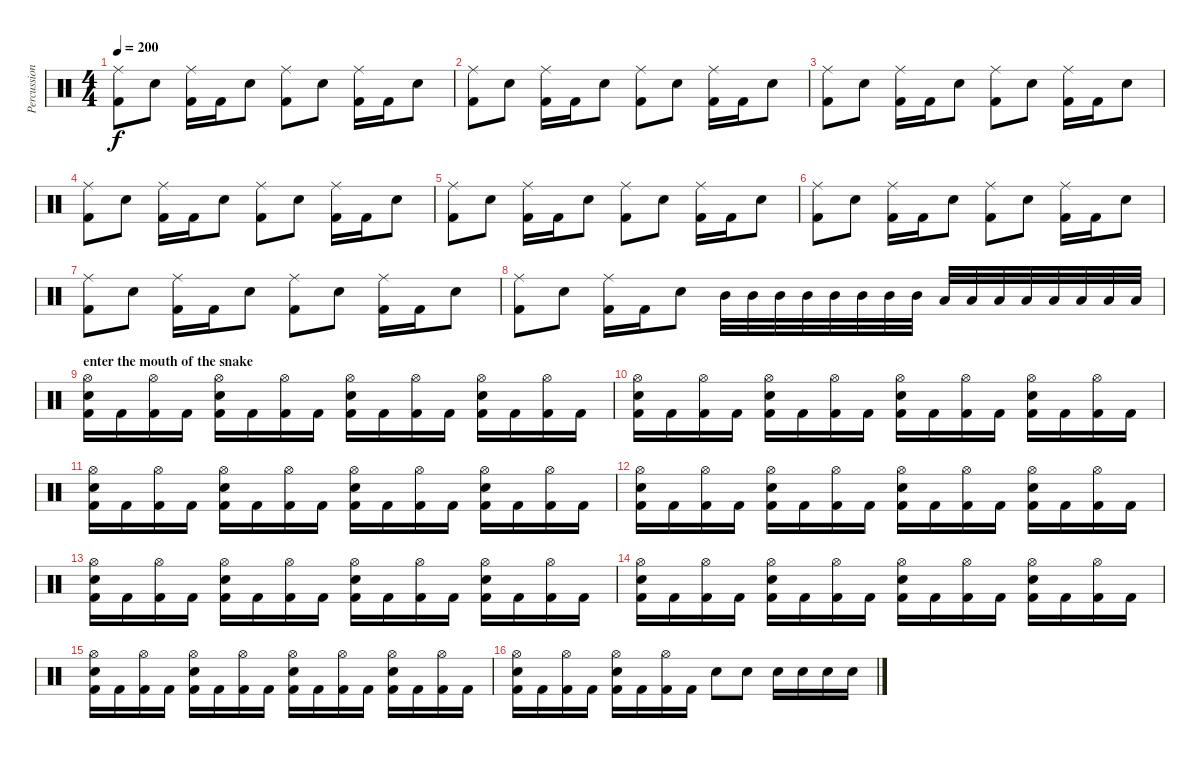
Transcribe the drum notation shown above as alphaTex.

\track ("Percussions" "Percussion") {instrument percussion}
\staff {score}
\articulation defaults
\ts (4 4)
\tempo 200
\clef neutral
\ks c
("Ride (middle)" "Kick (hit) 2").8{dy f} "Electric Snare (hit)".8 ("Ride (middle)" "Kick (hit) 2").16 "Kick (hit) 2".16 "Electric Snare (hit)".8 ("Ride (middle)" "Kick (hit) 2").8 "Electric Snare (hit)".8 ("Ride (middle)" "Kick (hit) 2").16 "Kick (hit) 2".16 "Electric Snare (hit)".8 |
("Ride (middle)" "Kick (hit) 2").8 "Electric Snare (hit)".8 ("Ride (middle)" "Kick (hit) 2").16 "Kick (hit) 2".16 "Electric Snare (hit)".8 ("Ride (middle)" "Kick (hit) 2").8 "Electric Snare (hit)".8 ("Ride (middle)" "Kick (hit) 2").16 "Kick (hit) 2".16 "Electric Snare (hit)".8 |
("Ride (middle)" "Kick (hit) 2").8 "Electric Snare (hit)".8 ("Ride (middle)" "Kick (hit) 2").16 "Kick (hit) 2".16 "Electric Snare (hit)".8 ("Ride (middle)" "Kick (hit) 2").8 "Electric Snare (hit)".8 ("Ride (middle)" "Kick (hit) 2").16 "Kick (hit) 2".16 "Electric Snare (hit)".8 |
("Ride (middle)" "Kick (hit) 2").8 "Electric Snare (hit)".8 ("Ride (middle)" "Kick (hit) 2").16 "Kick (hit) 2".16 "Electric Snare (hit)".8 ("Ride (middle)" "Kick (hit) 2").8 "Electric Snare (hit)".8 ("Ride (middle)" "Kick (hit) 2").16 "Kick (hit) 2".16 "Electric Snare (hit)".8 |
("Ride (middle)" "Kick (hit) 2").8 "Electric Snare (hit)".8 ("Ride (middle)" "Kick (hit) 2").16 "Kick (hit) 2".16 "Electric Snare (hit)".8 ("Ride (middle)" "Kick (hit) 2").8 "Electric Snare (hit)".8 ("Ride (middle)" "Kick (hit) 2").16 "Kick (hit) 2".16 "Electric Snare (hit)".8 |
("Ride (middle)" "Kick (hit) 2").8 "Electric Snare (hit)".8 ("Ride (middle)" "Kick (hit) 2").16 "Kick (hit) 2".16 "Electric Snare (hit)".8 ("Ride (middle)" "Kick (hit) 2").8 "Electric Snare (hit)".8 ("Ride (middle)" "Kick (hit) 2").16 "Kick (hit) 2".16 "Electric Snare (hit)".8 |
("Ride (middle)" "Kick (hit) 2").8 "Electric Snare (hit)".8 ("Ride (middle)" "Kick (hit) 2").16 "Kick (hit) 2".16 "Electric Snare (hit)".8 ("Ride (middle)" "Kick (hit) 2").8 "Electric Snare (hit)".8 ("Ride (middle)" "Kick (hit) 2").16 "Kick (hit) 2".16 "Electric Snare (hit)".8 |
("Ride (middle)" "Kick (hit) 2").8 "Electric Snare (hit)".8 ("Ride (middle)" "Kick (hit) 2").16 "Kick (hit) 2".16 "Electric Snare (hit)".8 "Mid Tom (hit)".32 "Mid Tom (hit)".32 "Mid Tom (hit)".32 "Mid Tom (hit)".32 "Mid Tom (hit)".32 "Mid Tom (hit)".32 "Mid Tom (hit)".32 "Mid Tom (hit)".32 "Low Tom (hit)".32 "Low Tom (hit)".32 "Low Tom (hit)".32 "Low Tom (hit)".32 "Low Tom (hit)".32 "Low Tom (hit)".32 "Low Tom (hit)".32 "Low Tom (hit)".32 |
\section ("" "enter the mouth of the snake")
("Hi-Hat (open)" "Electric Snare (hit)" "Kick (hit) 2").16 "Kick (hit) 2".16 ("Hi-Hat (open)" "Kick (hit) 2").16 "Kick (hit) 2".16 ("Hi-Hat (open)" "Electric Snare (hit)" "Kick (hit) 2").16 "Kick (hit) 2".16 ("Hi-Hat (open)" "Kick (hit) 2").16 "Kick (hit) 2".16 ("Hi-Hat (open)" "Electric Snare (hit)" "Kick (hit) 2").16 "Kick (hit) 2".16 ("Hi-Hat (open)" "Kick (hit) 2").16 "Kick (hit) 2".16 ("Hi-Hat (open)" "Electric Snare (hit)" "Kick (hit) 2").16 "Kick (hit) 2".16 ("Hi-Hat (open)" "Kick (hit) 2").16 "Kick (hit) 2".16 |
("Hi-Hat (open)" "Electric Snare (hit)" "Kick (hit) 2").16 "Kick (hit) 2".16 ("Hi-Hat (open)" "Kick (hit) 2").16 "Kick (hit) 2".16 ("Hi-Hat (open)" "Electric Snare (hit)" "Kick (hit) 2").16 "Kick (hit) 2".16 ("Hi-Hat (open)" "Kick (hit) 2").16 "Kick (hit) 2".16 ("Hi-Hat (open)" "Electric Snare (hit)" "Kick (hit) 2").16 "Kick (hit) 2".16 ("Hi-Hat (open)" "Kick (hit) 2").16 "Kick (hit) 2".16 ("Hi-Hat (open)" "Electric Snare (hit)" "Kick (hit) 2").16 "Kick (hit) 2".16 ("Hi-Hat (open)" "Kick (hit) 2").16 "Kick (hit) 2".16 |
("Hi-Hat (open)" "Electric Snare (hit)" "Kick (hit) 2").16 "Kick (hit) 2".16 ("Hi-Hat (open)" "Kick (hit) 2").16 "Kick (hit) 2".16 ("Hi-Hat (open)" "Electric Snare (hit)" "Kick (hit) 2").16 "Kick (hit) 2".16 ("Hi-Hat (open)" "Kick (hit) 2").16 "Kick (hit) 2".16 ("Hi-Hat (open)" "Electric Snare (hit)" "Kick (hit) 2").16 "Kick (hit) 2".16 ("Hi-Hat (open)" "Kick (hit) 2").16 "Kick (hit) 2".16 ("Hi-Hat (open)" "Electric Snare (hit)" "Kick (hit) 2").16 "Kick (hit) 2".16 ("Hi-Hat (open)" "Kick (hit) 2").16 "Kick (hit) 2".16 |
("Hi-Hat (open)" "Electric Snare (hit)" "Kick (hit) 2").16 "Kick (hit) 2".16 ("Hi-Hat (open)" "Kick (hit) 2").16 "Kick (hit) 2".16 ("Hi-Hat (open)" "Electric Snare (hit)" "Kick (hit) 2").16 "Kick (hit) 2".16 ("Hi-Hat (open)" "Kick (hit) 2").16 "Kick (hit) 2".16 ("Hi-Hat (open)" "Electric Snare (hit)" "Kick (hit) 2").16 "Kick (hit) 2".16 ("Hi-Hat (open)" "Kick (hit) 2").16 "Kick (hit) 2".16 ("Hi-Hat (open)" "Electric Snare (hit)" "Kick (hit) 2").16 "Kick (hit) 2".16 ("Hi-Hat (open)" "Kick (hit) 2").16 "Kick (hit) 2".16 |
("Hi-Hat (open)" "Electric Snare (hit)" "Kick (hit) 2").16 "Kick (hit) 2".16 ("Hi-Hat (open)" "Kick (hit) 2").16 "Kick (hit) 2".16 ("Hi-Hat (open)" "Electric Snare (hit)" "Kick (hit) 2").16 "Kick (hit) 2".16 ("Hi-Hat (open)" "Kick (hit) 2").16 "Kick (hit) 2".16 ("Hi-Hat (open)" "Electric Snare (hit)" "Kick (hit) 2").16 "Kick (hit) 2".16 ("Hi-Hat (open)" "Kick (hit) 2").16 "Kick (hit) 2".16 ("Hi-Hat (open)" "Electric Snare (hit)" "Kick (hit) 2").16 "Kick (hit) 2".16 ("Hi-Hat (open)" "Kick (hit) 2").16 "Kick (hit) 2".16 |
("Hi-Hat (open)" "Electric Snare (hit)" "Kick (hit) 2").16 "Kick (hit) 2".16 ("Hi-Hat (open)" "Kick (hit) 2").16 "Kick (hit) 2".16 ("Hi-Hat (open)" "Electric Snare (hit)" "Kick (hit) 2").16 "Kick (hit) 2".16 ("Hi-Hat (open)" "Kick (hit) 2").16 "Kick (hit) 2".16 ("Hi-Hat (open)" "Electric Snare (hit)" "Kick (hit) 2").16 "Kick (hit) 2".16 ("Hi-Hat (open)" "Kick (hit) 2").16 "Kick (hit) 2".16 ("Hi-Hat (open)" "Electric Snare (hit)" "Kick (hit) 2").16 "Kick (hit) 2".16 ("Hi-Hat (open)" "Kick (hit) 2").16 "Kick (hit) 2".16 |
("Hi-Hat (open)" "Electric Snare (hit)" "Kick (hit) 2").16 "Kick (hit) 2".16 ("Hi-Hat (open)" "Kick (hit) 2").16 "Kick (hit) 2".16 ("Hi-Hat (open)" "Electric Snare (hit)" "Kick (hit) 2").16 "Kick (hit) 2".16 ("Hi-Hat (open)" "Kick (hit) 2").16 "Kick (hit) 2".16 ("Hi-Hat (open)" "Electric Snare (hit)" "Kick (hit) 2").16 "Kick (hit) 2".16 ("Hi-Hat (open)" "Kick (hit) 2").16 "Kick (hit) 2".16 ("Hi-Hat (open)" "Electric Snare (hit)" "Kick (hit) 2").16 "Kick (hit) 2".16 ("Hi-Hat (open)" "Kick (hit) 2").16 "Kick (hit) 2".16 |
("Hi-Hat (open)" "Electric Snare (hit)" "Kick (hit) 2").16 "Kick (hit) 2".16 ("Hi-Hat (open)" "Kick (hit) 2").16 "Kick (hit) 2".16 ("Hi-Hat (open)" "Electric Snare (hit)" "Kick (hit) 2").16 "Kick (hit) 2".16 ("Hi-Hat (open)" "Kick (hit) 2").16 "Kick (hit) 2".16 "Electric Snare (hit)".8 "Electric Snare (hit)".8 "Electric Snare (hit)".16 "Electric Snare (hit)".16 "Electric Snare (hit)".16 "Electric Snare (hit)".16
